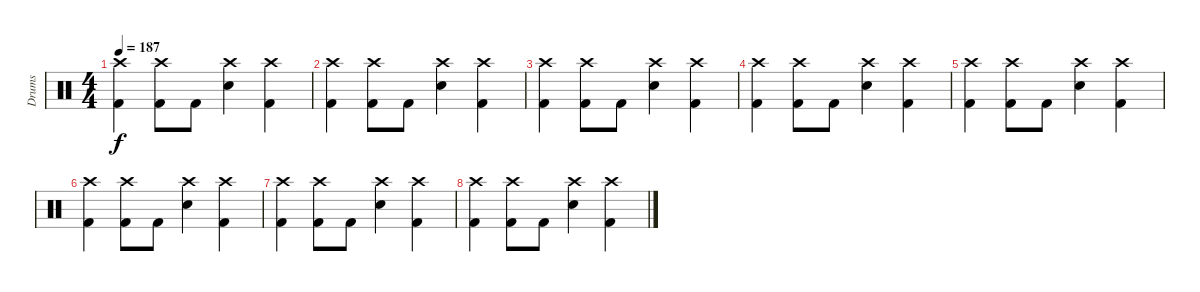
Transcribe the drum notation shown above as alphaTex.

\track ("Drums" "Drums") {instrument percussion}
\staff {score}
\articulation defaults
\ts (4 4)
\tempo 187
\clef neutral
\ks c
("Crash high (hit)" "Kick (hit) 2").4{dy f} ("Crash high (hit)" "Kick (hit) 2").8 "Kick (hit) 2".8 ("Crash high (hit)" "Electric Snare (hit)").4 ("Crash high (hit)" "Kick (hit) 2").4 |
("Crash high (hit)" "Kick (hit) 2").4 ("Crash high (hit)" "Kick (hit) 2").8 "Kick (hit) 2".8 ("Crash high (hit)" "Electric Snare (hit)").4 ("Crash high (hit)" "Kick (hit) 2").4 |
("Crash high (hit)" "Kick (hit) 2").4 ("Crash high (hit)" "Kick (hit) 2").8 "Kick (hit) 2".8 ("Crash high (hit)" "Electric Snare (hit)").4 ("Crash high (hit)" "Kick (hit) 2").4 |
("Crash high (hit)" "Kick (hit) 2").4 ("Crash high (hit)" "Kick (hit) 2").8 "Kick (hit) 2".8 ("Crash high (hit)" "Electric Snare (hit)").4 ("Crash high (hit)" "Kick (hit) 2").4 |
("Crash high (hit)" "Kick (hit) 2").4 ("Crash high (hit)" "Kick (hit) 2").8 "Kick (hit) 2".8 ("Crash high (hit)" "Electric Snare (hit)").4 ("Crash high (hit)" "Kick (hit) 2").4 |
("Crash high (hit)" "Kick (hit) 2").4 ("Crash high (hit)" "Kick (hit) 2").8 "Kick (hit) 2".8 ("Crash high (hit)" "Electric Snare (hit)").4 ("Crash high (hit)" "Kick (hit) 2").4 |
("Crash high (hit)" "Kick (hit) 2").4 ("Crash high (hit)" "Kick (hit) 2").8 "Kick (hit) 2".8 ("Crash high (hit)" "Electric Snare (hit)").4 ("Crash high (hit)" "Kick (hit) 2").4 |
("Crash high (hit)" "Kick (hit) 2").4 ("Crash high (hit)" "Kick (hit) 2").8 "Kick (hit) 2".8 ("Crash high (hit)" "Electric Snare (hit)").4 ("Crash high (hit)" "Kick (hit) 2").4
